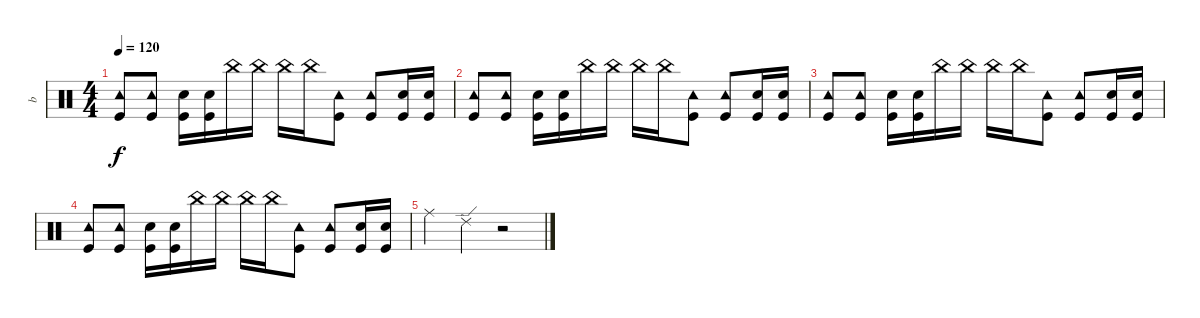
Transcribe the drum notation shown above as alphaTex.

\track ("b" "b") {instrument percussion}
\staff {score}
\articulation defaults
\ts (4 4)
\tempo 120
\clef neutral
\ks c
("Tambourine (hit)" "Kick (hit)").8{dy f} ("Tambourine (hit)" "Kick (hit)").8 ("Electric Snare (hit)" "Kick (hit)").16 ("Electric Snare (hit)" "Kick (hit)").16 "China (hit)".16 "China (hit)".16 "China (hit)".16 "China (hit)".16 ("Tambourine (hit)" "Kick (hit)").8 ("Tambourine (hit)" "Kick (hit)").8 ("Electric Snare (hit)" "Kick (hit)").16 ("Electric Snare (hit)" "Kick (hit)").16 |
("Tambourine (hit)" "Kick (hit)").8 ("Tambourine (hit)" "Kick (hit)").8 ("Electric Snare (hit)" "Kick (hit)").16 ("Electric Snare (hit)" "Kick (hit)").16 "China (hit)".16 "China (hit)".16 "China (hit)".16 "China (hit)".16 ("Tambourine (hit)" "Kick (hit)").8 ("Tambourine (hit)" "Kick (hit)").8 ("Electric Snare (hit)" "Kick (hit)").16 ("Electric Snare (hit)" "Kick (hit)").16 |
("Tambourine (hit)" "Kick (hit)").8 ("Tambourine (hit)" "Kick (hit)").8 ("Electric Snare (hit)" "Kick (hit)").16 ("Electric Snare (hit)" "Kick (hit)").16 "China (hit)".16 "China (hit)".16 "China (hit)".16 "China (hit)".16 ("Tambourine (hit)" "Kick (hit)").8 ("Tambourine (hit)" "Kick (hit)").8 ("Electric Snare (hit)" "Kick (hit)").16 ("Electric Snare (hit)" "Kick (hit)").16 |
("Tambourine (hit)" "Kick (hit)").8 ("Tambourine (hit)" "Kick (hit)").8 ("Electric Snare (hit)" "Kick (hit)").16 ("Electric Snare (hit)" "Kick (hit)").16 "China (hit)".16 "China (hit)".16 "China (hit)".16 "China (hit)".16 ("Tambourine (hit)" "Kick (hit)").8 ("Tambourine (hit)" "Kick (hit)").8 ("Electric Snare (hit)" "Kick (hit)").16 ("Electric Snare (hit)" "Kick (hit)").16 |
"Ride (middle)".4{volume 16} "Ride (edge) 2".4 r.2
